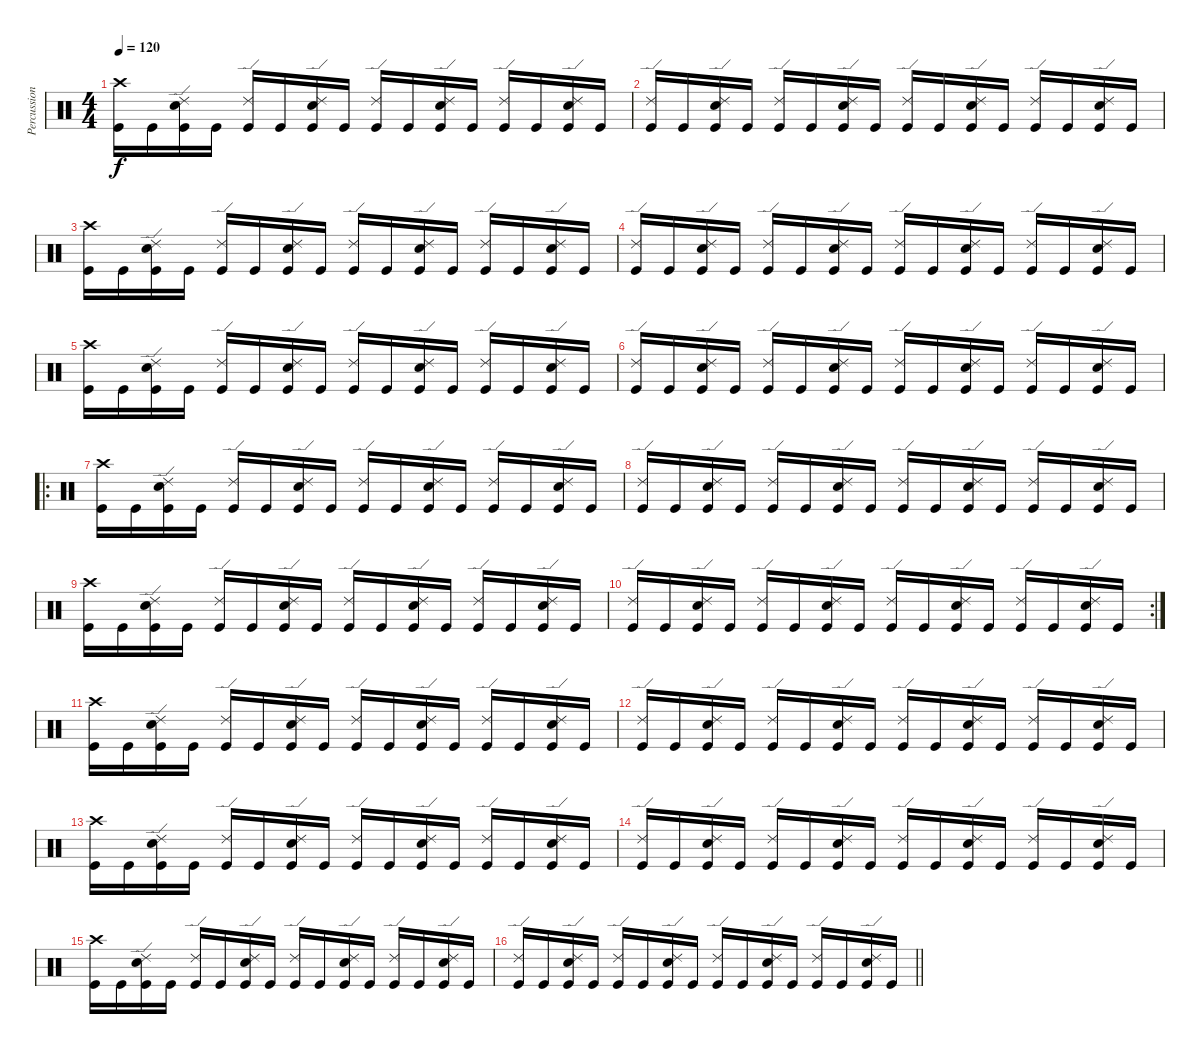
\track ("Percussion(Satish)" "Percussion") {instrument percussion}
\staff {score}
\articulation defaults
\ts (4 4)
\tempo 120
\clef neutral
\ks c
("Crash high (hit)" "Kick (hit)").16{dy f} "Kick (hit)".16 ("Ride (edge) 2" "Electric Snare (hit)" "Kick (hit)").16 "Kick (hit)".16 ("Ride (edge) 2" "Kick (hit)").16 "Kick (hit)".16 ("Ride (edge) 2" "Electric Snare (hit)" "Kick (hit)").16 "Kick (hit)".16 ("Ride (edge) 2" "Kick (hit)").16 "Kick (hit)".16 ("Ride (edge) 2" "Electric Snare (hit)" "Kick (hit)").16 "Kick (hit)".16 ("Ride (edge) 2" "Kick (hit)").16 "Kick (hit)".16 ("Ride (edge) 2" "Electric Snare (hit)" "Kick (hit)").16 "Kick (hit)".16 |
("Ride (edge) 2" "Kick (hit)").16 "Kick (hit)".16 ("Ride (edge) 2" "Electric Snare (hit)" "Kick (hit)").16 "Kick (hit)".16 ("Ride (edge) 2" "Kick (hit)").16 "Kick (hit)".16 ("Ride (edge) 2" "Electric Snare (hit)" "Kick (hit)").16 "Kick (hit)".16 ("Ride (edge) 2" "Kick (hit)").16 "Kick (hit)".16 ("Ride (edge) 2" "Electric Snare (hit)" "Kick (hit)").16 "Kick (hit)".16 ("Ride (edge) 2" "Kick (hit)").16 "Kick (hit)".16 ("Ride (edge) 2" "Electric Snare (hit)" "Kick (hit)").16 "Kick (hit)".16 |
("Crash high (hit)" "Kick (hit)").16 "Kick (hit)".16 ("Ride (edge) 2" "Electric Snare (hit)" "Kick (hit)").16 "Kick (hit)".16 ("Ride (edge) 2" "Kick (hit)").16 "Kick (hit)".16 ("Ride (edge) 2" "Electric Snare (hit)" "Kick (hit)").16 "Kick (hit)".16 ("Ride (edge) 2" "Kick (hit)").16 "Kick (hit)".16 ("Ride (edge) 2" "Electric Snare (hit)" "Kick (hit)").16 "Kick (hit)".16 ("Ride (edge) 2" "Kick (hit)").16 "Kick (hit)".16 ("Ride (edge) 2" "Electric Snare (hit)" "Kick (hit)").16 "Kick (hit)".16 |
("Ride (edge) 2" "Kick (hit)").16 "Kick (hit)".16 ("Ride (edge) 2" "Electric Snare (hit)" "Kick (hit)").16 "Kick (hit)".16 ("Ride (edge) 2" "Kick (hit)").16 "Kick (hit)".16 ("Ride (edge) 2" "Electric Snare (hit)" "Kick (hit)").16 "Kick (hit)".16 ("Ride (edge) 2" "Kick (hit)").16 "Kick (hit)".16 ("Ride (edge) 2" "Electric Snare (hit)" "Kick (hit)").16 "Kick (hit)".16 ("Ride (edge) 2" "Kick (hit)").16 "Kick (hit)".16 ("Ride (edge) 2" "Electric Snare (hit)" "Kick (hit)").16 "Kick (hit)".16 |
("Crash high (hit)" "Kick (hit)").16 "Kick (hit)".16 ("Ride (edge) 2" "Electric Snare (hit)" "Kick (hit)").16 "Kick (hit)".16 ("Ride (edge) 2" "Kick (hit)").16 "Kick (hit)".16 ("Ride (edge) 2" "Electric Snare (hit)" "Kick (hit)").16 "Kick (hit)".16 ("Ride (edge) 2" "Kick (hit)").16 "Kick (hit)".16 ("Ride (edge) 2" "Electric Snare (hit)" "Kick (hit)").16 "Kick (hit)".16 ("Ride (edge) 2" "Kick (hit)").16 "Kick (hit)".16 ("Ride (edge) 2" "Electric Snare (hit)" "Kick (hit)").16 "Kick (hit)".16 |
("Ride (edge) 2" "Kick (hit)").16 "Kick (hit)".16 ("Ride (edge) 2" "Electric Snare (hit)" "Kick (hit)").16 "Kick (hit)".16 ("Ride (edge) 2" "Kick (hit)").16 "Kick (hit)".16 ("Ride (edge) 2" "Electric Snare (hit)" "Kick (hit)").16 "Kick (hit)".16 ("Ride (edge) 2" "Kick (hit)").16 "Kick (hit)".16 ("Ride (edge) 2" "Electric Snare (hit)" "Kick (hit)").16 "Kick (hit)".16 ("Ride (edge) 2" "Kick (hit)").16 "Kick (hit)".16 ("Ride (edge) 2" "Electric Snare (hit)" "Kick (hit)").16 "Kick (hit)".16 |
\ro
("Crash high (hit)" "Kick (hit)").16 "Kick (hit)".16 ("Ride (edge) 2" "Electric Snare (hit)" "Kick (hit)").16 "Kick (hit)".16 ("Ride (edge) 2" "Kick (hit)").16 "Kick (hit)".16 ("Ride (edge) 2" "Electric Snare (hit)" "Kick (hit)").16 "Kick (hit)".16 ("Ride (edge) 2" "Kick (hit)").16 "Kick (hit)".16 ("Ride (edge) 2" "Electric Snare (hit)" "Kick (hit)").16 "Kick (hit)".16 ("Ride (edge) 2" "Kick (hit)").16 "Kick (hit)".16 ("Ride (edge) 2" "Electric Snare (hit)" "Kick (hit)").16 "Kick (hit)".16 |
("Ride (edge) 2" "Kick (hit)").16 "Kick (hit)".16 ("Ride (edge) 2" "Electric Snare (hit)" "Kick (hit)").16 "Kick (hit)".16 ("Ride (edge) 2" "Kick (hit)").16 "Kick (hit)".16 ("Ride (edge) 2" "Electric Snare (hit)" "Kick (hit)").16 "Kick (hit)".16 ("Ride (edge) 2" "Kick (hit)").16 "Kick (hit)".16 ("Ride (edge) 2" "Electric Snare (hit)" "Kick (hit)").16 "Kick (hit)".16 ("Ride (edge) 2" "Kick (hit)").16 "Kick (hit)".16 ("Ride (edge) 2" "Electric Snare (hit)" "Kick (hit)").16 "Kick (hit)".16 |
("Crash high (hit)" "Kick (hit)").16 "Kick (hit)".16 ("Ride (edge) 2" "Electric Snare (hit)" "Kick (hit)").16 "Kick (hit)".16 ("Ride (edge) 2" "Kick (hit)").16 "Kick (hit)".16 ("Ride (edge) 2" "Electric Snare (hit)" "Kick (hit)").16 "Kick (hit)".16 ("Ride (edge) 2" "Kick (hit)").16 "Kick (hit)".16 ("Ride (edge) 2" "Electric Snare (hit)" "Kick (hit)").16 "Kick (hit)".16 ("Ride (edge) 2" "Kick (hit)").16 "Kick (hit)".16 ("Ride (edge) 2" "Electric Snare (hit)" "Kick (hit)").16 "Kick (hit)".16 |
\rc 2
("Ride (edge) 2" "Kick (hit)").16 "Kick (hit)".16 ("Ride (edge) 2" "Electric Snare (hit)" "Kick (hit)").16 "Kick (hit)".16 ("Ride (edge) 2" "Kick (hit)").16 "Kick (hit)".16 ("Ride (edge) 2" "Electric Snare (hit)" "Kick (hit)").16 "Kick (hit)".16 ("Ride (edge) 2" "Kick (hit)").16 "Kick (hit)".16 ("Ride (edge) 2" "Electric Snare (hit)" "Kick (hit)").16 "Kick (hit)".16 ("Ride (edge) 2" "Kick (hit)").16 "Kick (hit)".16 ("Ride (edge) 2" "Electric Snare (hit)" "Kick (hit)").16 "Kick (hit)".16 |
("Crash high (hit)" "Kick (hit)").16 "Kick (hit)".16 ("Ride (edge) 2" "Electric Snare (hit)" "Kick (hit)").16 "Kick (hit)".16 ("Ride (edge) 2" "Kick (hit)").16 "Kick (hit)".16 ("Ride (edge) 2" "Electric Snare (hit)" "Kick (hit)").16 "Kick (hit)".16 ("Ride (edge) 2" "Kick (hit)").16 "Kick (hit)".16 ("Ride (edge) 2" "Electric Snare (hit)" "Kick (hit)").16 "Kick (hit)".16 ("Ride (edge) 2" "Kick (hit)").16 "Kick (hit)".16 ("Ride (edge) 2" "Electric Snare (hit)" "Kick (hit)").16 "Kick (hit)".16 |
("Ride (edge) 2" "Kick (hit)").16 "Kick (hit)".16 ("Ride (edge) 2" "Electric Snare (hit)" "Kick (hit)").16 "Kick (hit)".16 ("Ride (edge) 2" "Kick (hit)").16 "Kick (hit)".16 ("Ride (edge) 2" "Electric Snare (hit)" "Kick (hit)").16 "Kick (hit)".16 ("Ride (edge) 2" "Kick (hit)").16 "Kick (hit)".16 ("Ride (edge) 2" "Electric Snare (hit)" "Kick (hit)").16 "Kick (hit)".16 ("Ride (edge) 2" "Kick (hit)").16 "Kick (hit)".16 ("Ride (edge) 2" "Electric Snare (hit)" "Kick (hit)").16 "Kick (hit)".16 |
("Crash high (hit)" "Kick (hit)").16 "Kick (hit)".16 ("Ride (edge) 2" "Electric Snare (hit)" "Kick (hit)").16 "Kick (hit)".16 ("Ride (edge) 2" "Kick (hit)").16 "Kick (hit)".16 ("Ride (edge) 2" "Electric Snare (hit)" "Kick (hit)").16 "Kick (hit)".16 ("Ride (edge) 2" "Kick (hit)").16 "Kick (hit)".16 ("Ride (edge) 2" "Electric Snare (hit)" "Kick (hit)").16 "Kick (hit)".16 ("Ride (edge) 2" "Kick (hit)").16 "Kick (hit)".16 ("Ride (edge) 2" "Electric Snare (hit)" "Kick (hit)").16 "Kick (hit)".16 |
("Ride (edge) 2" "Kick (hit)").16 "Kick (hit)".16 ("Ride (edge) 2" "Electric Snare (hit)" "Kick (hit)").16 "Kick (hit)".16 ("Ride (edge) 2" "Kick (hit)").16 "Kick (hit)".16 ("Ride (edge) 2" "Electric Snare (hit)" "Kick (hit)").16 "Kick (hit)".16 ("Ride (edge) 2" "Kick (hit)").16 "Kick (hit)".16 ("Ride (edge) 2" "Electric Snare (hit)" "Kick (hit)").16 "Kick (hit)".16 ("Ride (edge) 2" "Kick (hit)").16 "Kick (hit)".16 ("Ride (edge) 2" "Electric Snare (hit)" "Kick (hit)").16 "Kick (hit)".16 |
("Crash high (hit)" "Kick (hit)").16 "Kick (hit)".16 ("Ride (edge) 2" "Electric Snare (hit)" "Kick (hit)").16 "Kick (hit)".16 ("Ride (edge) 2" "Kick (hit)").16 "Kick (hit)".16 ("Ride (edge) 2" "Electric Snare (hit)" "Kick (hit)").16 "Kick (hit)".16 ("Ride (edge) 2" "Kick (hit)").16 "Kick (hit)".16 ("Ride (edge) 2" "Electric Snare (hit)" "Kick (hit)").16 "Kick (hit)".16 ("Ride (edge) 2" "Kick (hit)").16 "Kick (hit)".16 ("Ride (edge) 2" "Electric Snare (hit)" "Kick (hit)").16 "Kick (hit)".16 |
\barLineRight lightlight
("Ride (edge) 2" "Kick (hit)").16 "Kick (hit)".16 ("Ride (edge) 2" "Electric Snare (hit)" "Kick (hit)").16 "Kick (hit)".16 ("Ride (edge) 2" "Kick (hit)").16 "Kick (hit)".16 ("Ride (edge) 2" "Electric Snare (hit)" "Kick (hit)").16 "Kick (hit)".16 ("Ride (edge) 2" "Kick (hit)").16 "Kick (hit)".16 ("Ride (edge) 2" "Electric Snare (hit)" "Kick (hit)").16 "Kick (hit)".16 ("Ride (edge) 2" "Kick (hit)").16 "Kick (hit)".16 ("Ride (edge) 2" "Electric Snare (hit)" "Kick (hit)").16 "Kick (hit)".16
